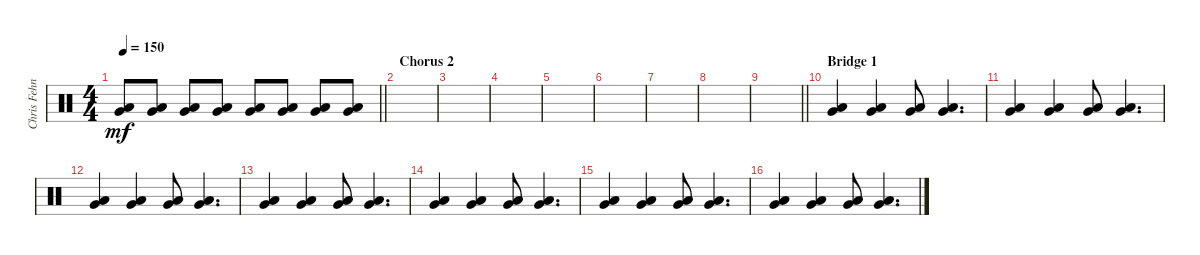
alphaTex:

\track ("Chris Fehn" "Chris Fehn") {instrument percussion}
\staff {score}
\articulation defaults
\ts (4 4)
\tempo 150
\clef neutral
\barLineRight lightlight
\ks c
("Very Low Tom (hit)" "Low Floor Tom (hit)").8{dy mf} ("Very Low Tom (hit)" "Low Floor Tom (hit)").8 ("Very Low Tom (hit)" "Low Floor Tom (hit)").8 ("Very Low Tom (hit)" "Low Floor Tom (hit)").8 ("Very Low Tom (hit)" "Low Floor Tom (hit)").8 ("Very Low Tom (hit)" "Low Floor Tom (hit)").8 ("Very Low Tom (hit)" "Low Floor Tom (hit)").8 ("Very Low Tom (hit)" "Low Floor Tom (hit)").8 |
\section ("" "Chorus 2")
|
|
|
|
|
|
|
\barLineRight lightlight
|
\section ("" "Bridge 1")
("Very Low Tom (hit)" "Low Floor Tom (hit)").4 ("Very Low Tom (hit)" "Low Floor Tom (hit)").4 ("Very Low Tom (hit)" "Low Floor Tom (hit)").8 ("Very Low Tom (hit)" "Low Floor Tom (hit)").4{d} |
("Very Low Tom (hit)" "Low Floor Tom (hit)").4 ("Very Low Tom (hit)" "Low Floor Tom (hit)").4 ("Very Low Tom (hit)" "Low Floor Tom (hit)").8 ("Very Low Tom (hit)" "Low Floor Tom (hit)").4{d} |
("Very Low Tom (hit)" "Low Floor Tom (hit)").4 ("Very Low Tom (hit)" "Low Floor Tom (hit)").4 ("Very Low Tom (hit)" "Low Floor Tom (hit)").8 ("Very Low Tom (hit)" "Low Floor Tom (hit)").4{d} |
("Very Low Tom (hit)" "Low Floor Tom (hit)").4 ("Very Low Tom (hit)" "Low Floor Tom (hit)").4 ("Very Low Tom (hit)" "Low Floor Tom (hit)").8 ("Very Low Tom (hit)" "Low Floor Tom (hit)").4{d} |
("Very Low Tom (hit)" "Low Floor Tom (hit)").4 ("Very Low Tom (hit)" "Low Floor Tom (hit)").4 ("Very Low Tom (hit)" "Low Floor Tom (hit)").8 ("Very Low Tom (hit)" "Low Floor Tom (hit)").4{d} |
("Very Low Tom (hit)" "Low Floor Tom (hit)").4 ("Very Low Tom (hit)" "Low Floor Tom (hit)").4 ("Very Low Tom (hit)" "Low Floor Tom (hit)").8 ("Very Low Tom (hit)" "Low Floor Tom (hit)").4{d} |
("Very Low Tom (hit)" "Low Floor Tom (hit)").4 ("Very Low Tom (hit)" "Low Floor Tom (hit)").4 ("Very Low Tom (hit)" "Low Floor Tom (hit)").8 ("Very Low Tom (hit)" "Low Floor Tom (hit)").4{d}
